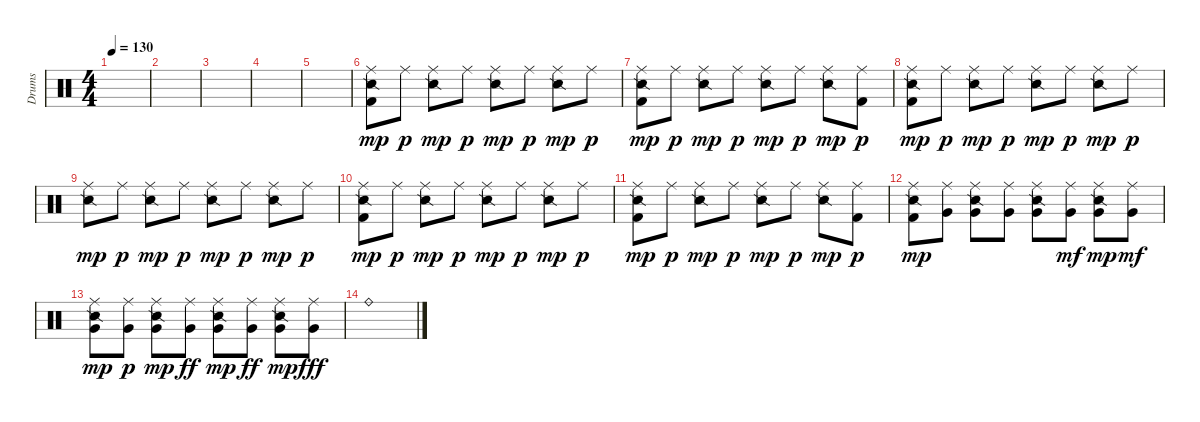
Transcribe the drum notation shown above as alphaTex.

\track ("Drums" "Drums") {instrument percussion}
\staff {score}
\articulation defaults
\ts (4 4)
\tempo 130
\clef neutral
\ks c
|
|
|
|
|
("Ride (middle)" "Snare (side stick) 2" "Kick (hit) 2").8{dy mp} "Ride (middle)".8{dy p} ("Ride (middle)" "Snare (side stick) 2").8{dy mp} "Ride (middle)".8{dy p} ("Ride (middle)" "Snare (side stick) 2").8{dy mp} "Ride (middle)".8{dy p} ("Ride (middle)" "Snare (side stick) 2").8{dy mp} "Ride (middle)".8{dy p} |
("Ride (middle)" "Snare (side stick) 2" "Kick (hit) 2").8{dy mp} "Ride (middle)".8{dy p} ("Ride (middle)" "Snare (side stick) 2").8{dy mp} "Ride (middle)".8{dy p} ("Ride (middle)" "Snare (side stick) 2").8{dy mp} "Ride (middle)".8{dy p} ("Ride (middle)" "Snare (side stick) 2").8{dy mp} ("Ride (middle)" "Kick (hit) 2").8{dy p} |
("Ride (middle)" "Snare (side stick) 2" "Kick (hit) 2").8{dy mp} "Ride (middle)".8{dy p} ("Ride (middle)" "Snare (side stick) 2").8{dy mp} "Ride (middle)".8{dy p} ("Ride (middle)" "Snare (side stick) 2").8{dy mp} "Ride (middle)".8{dy p} ("Ride (middle)" "Snare (side stick) 2").8{dy mp} "Ride (middle)".8{dy p} |
("Ride (middle)" "Snare (side stick) 2").8{dy mp} "Ride (middle)".8{dy p} ("Ride (middle)" "Snare (side stick) 2").8{dy mp} "Ride (middle)".8{dy p} ("Ride (middle)" "Snare (side stick) 2").8{dy mp} "Ride (middle)".8{dy p} ("Ride (middle)" "Snare (side stick) 2").8{dy mp} "Ride (middle)".8{dy p} |
("Ride (middle)" "Snare (side stick) 2" "Kick (hit) 2").8{dy mp} "Ride (middle)".8{dy p} ("Ride (middle)" "Snare (side stick) 2").8{dy mp} "Ride (middle)".8{dy p} ("Ride (middle)" "Snare (side stick) 2").8{dy mp} "Ride (middle)".8{dy p} ("Ride (middle)" "Snare (side stick) 2").8{dy mp} "Ride (middle)".8{dy p} |
("Ride (middle)" "Snare (side stick) 2" "Kick (hit) 2").8{dy mp} "Ride (middle)".8{dy p} ("Ride (middle)" "Snare (side stick) 2").8{dy mp} "Ride (middle)".8{dy p} ("Ride (middle)" "Snare (side stick) 2").8{dy mp} "Ride (middle)".8{dy p} ("Ride (middle)" "Snare (side stick) 2").8{dy mp} ("Ride (middle)" "Kick (hit) 2").8{dy p} |
("Ride (middle)" "Snare (side stick) 2" "Kick (hit) 2").8{dy mp} ("Ride (middle)" "Very Low Tom (hit)").8 ("Ride (middle)" "Very Low Tom (hit)" "Snare (side stick) 2").8 ("Ride (middle)" "Very Low Tom (hit)").8 ("Ride (middle)" "Very Low Tom (hit)" "Snare (side stick) 2").8 ("Ride (middle)" "Very Low Tom (hit)").8{dy mf} ("Ride (middle)" "Very Low Tom (hit)" "Snare (side stick) 2").8{dy mp} ("Ride (middle)" "Very Low Tom (hit)").8{dy mf} |
("Ride (middle)" "Very Low Tom (hit)" "Snare (side stick) 2").8{dy mp} ("Ride (middle)" "Very Low Tom (hit)").8{dy p} ("Ride (middle)" "Very Low Tom (hit)" "Snare (side stick) 2").8{dy mp} ("Ride (middle)" "Very Low Tom (hit)").8{dy ff} ("Ride (middle)" "Very Low Tom (hit)" "Snare (side stick) 2").8{dy mp} ("Ride (middle)" "Very Low Tom (hit)").8{dy ff} ("Ride (middle)" "Very Low Tom (hit)" "Snare (side stick) 2").8{dy mp} ("Ride (middle)" "Very Low Tom (hit)").8{dy fff} |
"Ride (bell)".1
